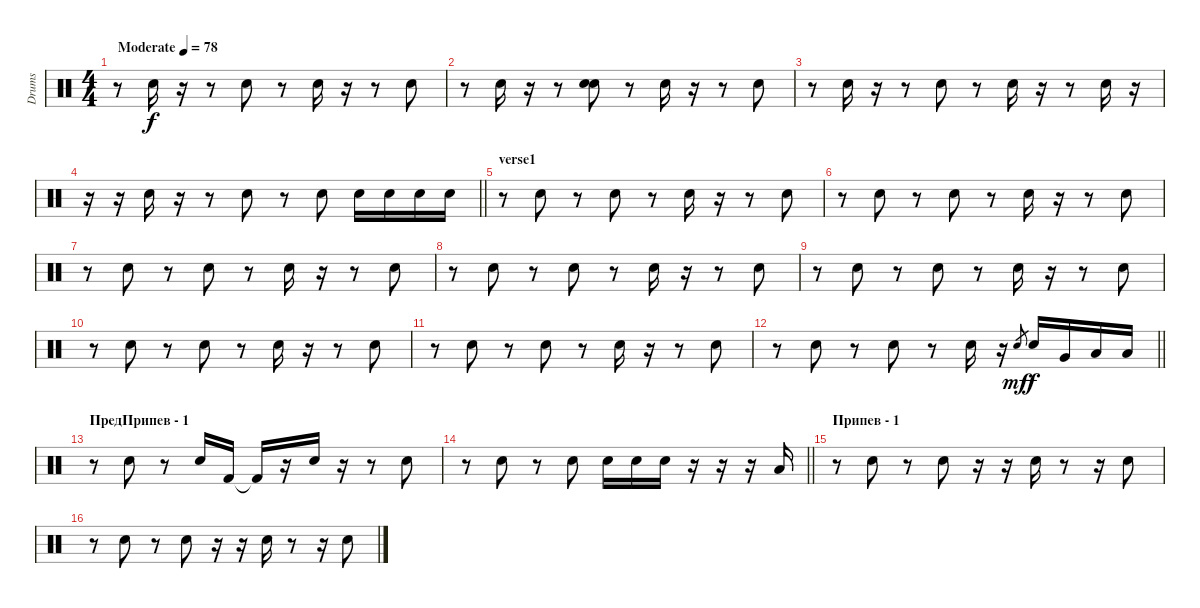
\track ("Drums" "Drums") {instrument percussion}
\staff {score}
\articulation defaults
\ts (4 4)
\tempo (78 "Moderate")
\clef neutral
\ks c
r.8{dy f} "Snare (hit) 2".16 r.16 r.8 "Snare (hit) 2".8 r.8 "Snare (hit) 2".16 r.16 r.8 "Snare (hit) 2".8 |
r.8 "Snare (hit) 2".16 r.16 r.8 ("Electric Snare (hit)" "Snare (hit) 2").8 r.8 "Snare (hit) 2".16 r.16 r.8 "Snare (hit) 2".8 |
r.8 "Snare (hit) 2".16 r.16 r.8 "Snare (hit) 2".8 r.8 "Snare (hit) 2".16 r.16 r.8 "Snare (hit) 2".16 r.16 |
\barLineRight lightlight
r.16 r.16 "Snare (hit) 2".16 r.16 r.8 "Snare (hit) 2".8 r.8 "Snare (hit) 2".8 "Snare (hit) 2".16 "Snare (hit) 2".16 "Snare (hit) 2".16 "Snare (hit) 2".16 |
\section ("" "verse1")
r.8 "Snare (hit) 2".8 r.8 "Snare (hit) 2".8 r.8 "Snare (hit) 2".16 r.16 r.8 "Snare (hit) 2".8 |
r.8 "Snare (hit) 2".8 r.8 "Snare (hit) 2".8 r.8 "Snare (hit) 2".16 r.16 r.8 "Snare (hit) 2".8 |
r.8 "Snare (hit) 2".8 r.8 "Snare (hit) 2".8 r.8 "Snare (hit) 2".16 r.16 r.8 "Snare (hit) 2".8 |
r.8 "Snare (hit) 2".8 r.8 "Snare (hit) 2".8 r.8 "Snare (hit) 2".16 r.16 r.8 "Snare (hit) 2".8 |
r.8 "Snare (hit) 2".8 r.8 "Snare (hit) 2".8 r.8 "Snare (hit) 2".16 r.16 r.8 "Snare (hit) 2".8 |
r.8 "Snare (hit) 2".8 r.8 "Snare (hit) 2".8 r.8 "Snare (hit) 2".16 r.16 r.8 "Snare (hit) 2".8 |
r.8 "Snare (hit) 2".8 r.8 "Snare (hit) 2".8 r.8 "Snare (hit) 2".16 r.16 r.8 "Snare (hit) 2".8 |
\barLineRight lightlight
r.8 "Snare (hit) 2".8 r.8 "Snare (hit) 2".8 r.8 "Snare (hit) 2".16 r.16 "Snare (hit) 2".8{gr dy mf} "Snare (hit) 2".16{dy f} "Very Low Tom (hit)".16 "Low Tom (hit)".16 "Low Tom (hit)".16 |
\section ("" "ПредПрипев - 1")
r.8 "Snare (hit) 2".8 r.8 "Snare (hit) 2".16 "Kick (hit) 2".16 "Kick (hit) 2"{t}.16 r.16 "Snare (hit) 2".16 r.16 r.8 "Snare (hit) 2".8 |
\barLineRight lightlight
r.8 "Snare (hit) 2".8 r.8 "Snare (hit) 2".8 "Snare (hit) 2".16 "Snare (hit) 2".16 "Snare (hit) 2".16 r.16 r.16 r.16 "Low Floor Tom (hit)".16 |
\section ("" "Припев - 1")
r.8 "Snare (hit) 2".8 r.8 "Snare (hit) 2".8 r.16 r.16 "Snare (hit) 2".16 r.8 r.16 "Snare (hit) 2".8 |
r.8 "Snare (hit) 2".8 r.8 "Snare (hit) 2".8 r.16 r.16 "Snare (hit) 2".16 r.8 r.16 "Snare (hit) 2".8
